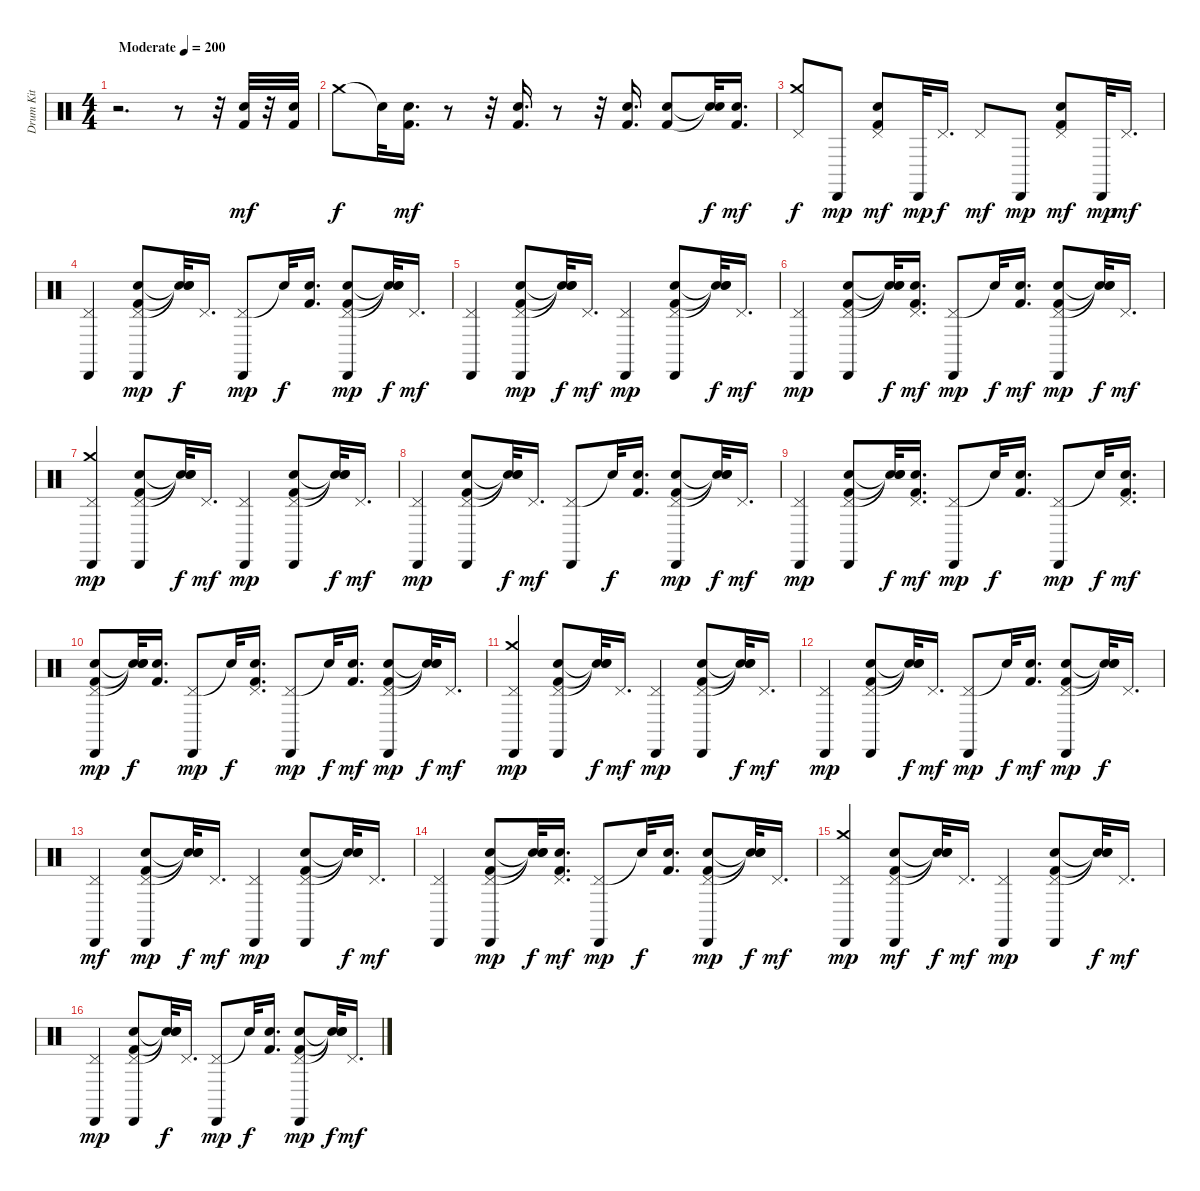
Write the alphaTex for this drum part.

\track ("Drum Kit" "Drum Kit") {instrument percussion}
\staff {score}
\articulation defaults
\ts (4 4)
\tempo (200 "Moderate")
\clef neutral
\ks c
r.2{d dy mf} r.8 r.32 ("Kick (hit) 2" "Snare (hit) 2").32 r.32 ("Kick (hit) 2" "Snare (hit) 2").32 |
"Crash medium (hit)".8{dy f} "Snare (hit)"{t}.32 ("Kick (hit) 2" "Snare (hit) 2").16{d dy mf} r.8 r.32 ("Kick (hit) 2" "Snare (hit) 2").16{d} r.8 r.32 ("Kick (hit) 2" "Snare (hit) 2").16{d} ("Kick (hit) 2" "Snare (hit) 2").8 ("Snare (hit)"{t} "Snare (hit)"{t}).32{dy f} ("Kick (hit) 2" "Snare (hit) 2").16{d dy mf} |
("Pedal Hi-Hat (hit)" "Crash medium (hit)").8{dy f} "Cabasa (hit)".8{dy mp} ("Pedal Hi-Hat (hit)" "Kick (hit) 2" "Snare (hit) 2").8{dy mf} "Cabasa (hit)".32{dy mp} "Pedal Hi-Hat (hit)".16{d dy f} "Pedal Hi-Hat (hit)".8{dy mf} "Cabasa (hit)".8{dy mp} ("Pedal Hi-Hat (hit)" "Kick (hit) 2" "Snare (hit) 2").8{dy mf} "Cabasa (hit)".32{dy mp} "Pedal Hi-Hat (hit)".16{d dy mf} |
("Pedal Hi-Hat (hit)" "Cabasa (hit)").4 ("Pedal Hi-Hat (hit)" "Kick (hit) 2" "Snare (hit) 2" "Cabasa (hit)").8{dy mp} ("Snare (hit)"{t} "Snare (hit)"{t} "Snare (hit)"{t}).32{dy f} "Pedal Hi-Hat (hit)".16{d} ("Pedal Hi-Hat (hit)" "Cabasa (hit)").8{dy mp} "Snare (hit)"{t}.32{dy f} ("Kick (hit) 2" "Snare (hit) 2").16{d} ("Pedal Hi-Hat (hit)" "Kick (hit) 2" "Snare (hit) 2" "Cabasa (hit)").8{dy mp} ("Snare (hit)"{t} "Snare (hit)"{t} "Snare (hit)"{t}).32{dy f} "Pedal Hi-Hat (hit)".16{d dy mf} |
("Pedal Hi-Hat (hit)" "Cabasa (hit)").4 ("Pedal Hi-Hat (hit)" "Kick (hit) 2" "Snare (hit) 2" "Cabasa (hit)").8{dy mp} ("Snare (hit)"{t} "Snare (hit)"{t} "Snare (hit)"{t}).32{dy f} "Pedal Hi-Hat (hit)".16{d dy mf} ("Pedal Hi-Hat (hit)" "Cabasa (hit)").4{dy mp} ("Pedal Hi-Hat (hit)" "Kick (hit) 2" "Snare (hit) 2" "Cabasa (hit)").8 ("Snare (hit)"{t} "Snare (hit)"{t} "Snare (hit)"{t}).32{dy f} "Pedal Hi-Hat (hit)".16{d dy mf} |
("Pedal Hi-Hat (hit)" "Cabasa (hit)").4{dy mp} ("Pedal Hi-Hat (hit)" "Kick (hit) 2" "Snare (hit) 2" "Cabasa (hit)").8 ("Snare (hit)"{t} "Snare (hit)"{t} "Snare (hit)"{t}).32{dy f} ("Kick (hit) 2" "Snare (hit) 2" "Pedal Hi-Hat (hit)").16{d dy mf} ("Pedal Hi-Hat (hit)" "Cabasa (hit)").8{dy mp} "Snare (hit)"{t}.32{dy f} ("Kick (hit) 2" "Snare (hit) 2").16{d dy mf} ("Pedal Hi-Hat (hit)" "Kick (hit) 2" "Snare (hit) 2" "Cabasa (hit)").8{dy mp} ("Snare (hit)"{t} "Snare (hit)"{t} "Snare (hit)"{t}).32{dy f} "Pedal Hi-Hat (hit)".16{d dy mf} |
("Pedal Hi-Hat (hit)" "Crash medium (hit)" "Cabasa (hit)").4{dy mp} ("Pedal Hi-Hat (hit)" "Kick (hit) 2" "Snare (hit) 2" "Cabasa (hit)").8 ("Snare (hit)"{t} "Snare (hit)"{t} "Snare (hit)"{t}).32{dy f} "Pedal Hi-Hat (hit)".16{d dy mf} ("Pedal Hi-Hat (hit)" "Cabasa (hit)").4{dy mp} ("Pedal Hi-Hat (hit)" "Kick (hit) 2" "Snare (hit) 2" "Cabasa (hit)").8 ("Snare (hit)"{t} "Snare (hit)"{t} "Snare (hit)"{t}).32{dy f} "Pedal Hi-Hat (hit)".16{d dy mf} |
("Pedal Hi-Hat (hit)" "Cabasa (hit)").4{dy mp} ("Pedal Hi-Hat (hit)" "Kick (hit) 2" "Snare (hit) 2" "Cabasa (hit)").8 ("Snare (hit)"{t} "Snare (hit)"{t} "Snare (hit)"{t}).32{dy f} "Pedal Hi-Hat (hit)".16{d dy mf} ("Pedal Hi-Hat (hit)" "Cabasa (hit)").8 "Snare (hit)"{t}.32{dy f} ("Kick (hit) 2" "Snare (hit) 2").16{d} ("Pedal Hi-Hat (hit)" "Kick (hit) 2" "Snare (hit) 2" "Cabasa (hit)").8{dy mp} ("Snare (hit)"{t} "Snare (hit)"{t} "Snare (hit)"{t}).32{dy f} "Pedal Hi-Hat (hit)".16{d dy mf} |
("Pedal Hi-Hat (hit)" "Cabasa (hit)").4{dy mp} ("Pedal Hi-Hat (hit)" "Kick (hit) 2" "Snare (hit) 2" "Cabasa (hit)").8 ("Snare (hit)"{t} "Snare (hit)"{t} "Snare (hit)"{t}).32{dy f} ("Kick (hit) 2" "Snare (hit) 2" "Pedal Hi-Hat (hit)").16{d dy mf} ("Pedal Hi-Hat (hit)" "Cabasa (hit)").8{dy mp} "Snare (hit)"{t}.32{dy f} ("Kick (hit) 2" "Snare (hit) 2").16{d} ("Pedal Hi-Hat (hit)" "Cabasa (hit)").8{dy mp} "Snare (hit)"{t}.32{dy f} ("Kick (hit) 2" "Snare (hit) 2" "Pedal Hi-Hat (hit)").16{d dy mf} |
("Pedal Hi-Hat (hit)" "Kick (hit) 2" "Snare (hit) 2" "Cabasa (hit)").8{dy mp} ("Snare (hit)"{t} "Snare (hit)"{t} "Snare (hit)"{t}).32{dy f} ("Kick (hit) 2" "Snare (hit) 2").16{d} ("Pedal Hi-Hat (hit)" "Cabasa (hit)").8{dy mp} "Snare (hit)"{t}.32{dy f} ("Kick (hit) 2" "Snare (hit) 2" "Pedal Hi-Hat (hit)").16{d} ("Pedal Hi-Hat (hit)" "Cabasa (hit)").8{dy mp} "Snare (hit)"{t}.32{dy f} ("Kick (hit) 2" "Snare (hit) 2").16{d dy mf} ("Pedal Hi-Hat (hit)" "Kick (hit) 2" "Snare (hit) 2" "Cabasa (hit)").8{dy mp} ("Snare (hit)"{t} "Snare (hit)"{t} "Snare (hit)"{t}).32{dy f} "Pedal Hi-Hat (hit)".16{d dy mf} |
("Pedal Hi-Hat (hit)" "Crash medium (hit)" "Cabasa (hit)").4{dy mp} ("Pedal Hi-Hat (hit)" "Kick (hit) 2" "Snare (hit) 2" "Cabasa (hit)").8 ("Snare (hit)"{t} "Snare (hit)"{t} "Snare (hit)"{t}).32{dy f} "Pedal Hi-Hat (hit)".16{d dy mf} ("Pedal Hi-Hat (hit)" "Cabasa (hit)").4{dy mp} ("Pedal Hi-Hat (hit)" "Kick (hit) 2" "Snare (hit) 2" "Cabasa (hit)").8 ("Snare (hit)"{t} "Snare (hit)"{t} "Snare (hit)"{t}).32{dy f} "Pedal Hi-Hat (hit)".16{d dy mf} |
("Pedal Hi-Hat (hit)" "Cabasa (hit)").4{dy mp} ("Pedal Hi-Hat (hit)" "Kick (hit) 2" "Snare (hit) 2" "Cabasa (hit)").8 ("Snare (hit)"{t} "Snare (hit)"{t} "Snare (hit)"{t}).32{dy f} "Pedal Hi-Hat (hit)".16{d dy mf} ("Pedal Hi-Hat (hit)" "Cabasa (hit)").8{dy mp} "Snare (hit)"{t}.32{dy f} ("Kick (hit) 2" "Snare (hit) 2").16{d dy mf} ("Pedal Hi-Hat (hit)" "Kick (hit) 2" "Snare (hit) 2" "Cabasa (hit)").8{dy mp} ("Snare (hit)"{t} "Snare (hit)"{t} "Snare (hit)"{t}).32{dy f} "Pedal Hi-Hat (hit)".16{d} |
("Pedal Hi-Hat (hit)" "Cabasa (hit)").4{dy mf} ("Pedal Hi-Hat (hit)" "Kick (hit) 2" "Snare (hit) 2" "Cabasa (hit)").8{dy mp} ("Snare (hit)"{t} "Snare (hit)"{t} "Snare (hit)"{t}).32{dy f} "Pedal Hi-Hat (hit)".16{d dy mf} ("Pedal Hi-Hat (hit)" "Cabasa (hit)").4{dy mp} ("Pedal Hi-Hat (hit)" "Kick (hit) 2" "Snare (hit) 2" "Cabasa (hit)").8 ("Snare (hit)"{t} "Snare (hit)"{t} "Snare (hit)"{t}).32{dy f} "Pedal Hi-Hat (hit)".16{d dy mf} |
("Pedal Hi-Hat (hit)" "Cabasa (hit)").4 ("Pedal Hi-Hat (hit)" "Kick (hit) 2" "Snare (hit) 2" "Cabasa (hit)").8{dy mp} ("Snare (hit)"{t} "Snare (hit)"{t} "Snare (hit)"{t}).32{dy f} ("Kick (hit) 2" "Snare (hit) 2" "Pedal Hi-Hat (hit)").16{d dy mf} ("Pedal Hi-Hat (hit)" "Cabasa (hit)").8{dy mp} "Snare (hit)"{t}.32{dy f} ("Kick (hit) 2" "Snare (hit) 2").16{d} ("Pedal Hi-Hat (hit)" "Kick (hit) 2" "Snare (hit) 2" "Cabasa (hit)").8{dy mp} ("Snare (hit)"{t} "Snare (hit)"{t} "Snare (hit)"{t}).32{dy f} "Pedal Hi-Hat (hit)".16{d dy mf} |
("Pedal Hi-Hat (hit)" "Crash medium (hit)" "Cabasa (hit)").4{dy mp} ("Pedal Hi-Hat (hit)" "Kick (hit) 2" "Snare (hit) 2" "Cabasa (hit)").8{dy mf} ("Snare (hit)"{t} "Snare (hit)"{t} "Snare (hit)"{t}).32{dy f} "Pedal Hi-Hat (hit)".16{d dy mf} ("Pedal Hi-Hat (hit)" "Cabasa (hit)").4{dy mp} ("Pedal Hi-Hat (hit)" "Kick (hit) 2" "Snare (hit) 2" "Cabasa (hit)").8 ("Snare (hit)"{t} "Snare (hit)"{t} "Snare (hit)"{t}).32{dy f} "Pedal Hi-Hat (hit)".16{d dy mf} |
("Pedal Hi-Hat (hit)" "Cabasa (hit)").4{dy mp} ("Pedal Hi-Hat (hit)" "Kick (hit) 2" "Snare (hit) 2" "Cabasa (hit)").8 ("Snare (hit)"{t} "Snare (hit)"{t} "Snare (hit)"{t}).32{dy f} "Pedal Hi-Hat (hit)".16{d} ("Pedal Hi-Hat (hit)" "Cabasa (hit)").8{dy mp} "Snare (hit)"{t}.32{dy f} ("Kick (hit) 2" "Snare (hit) 2").16{d} ("Pedal Hi-Hat (hit)" "Kick (hit) 2" "Snare (hit) 2" "Cabasa (hit)").8{dy mp} ("Snare (hit)"{t} "Snare (hit)"{t} "Snare (hit)"{t}).32{dy f} "Pedal Hi-Hat (hit)".16{d dy mf}
